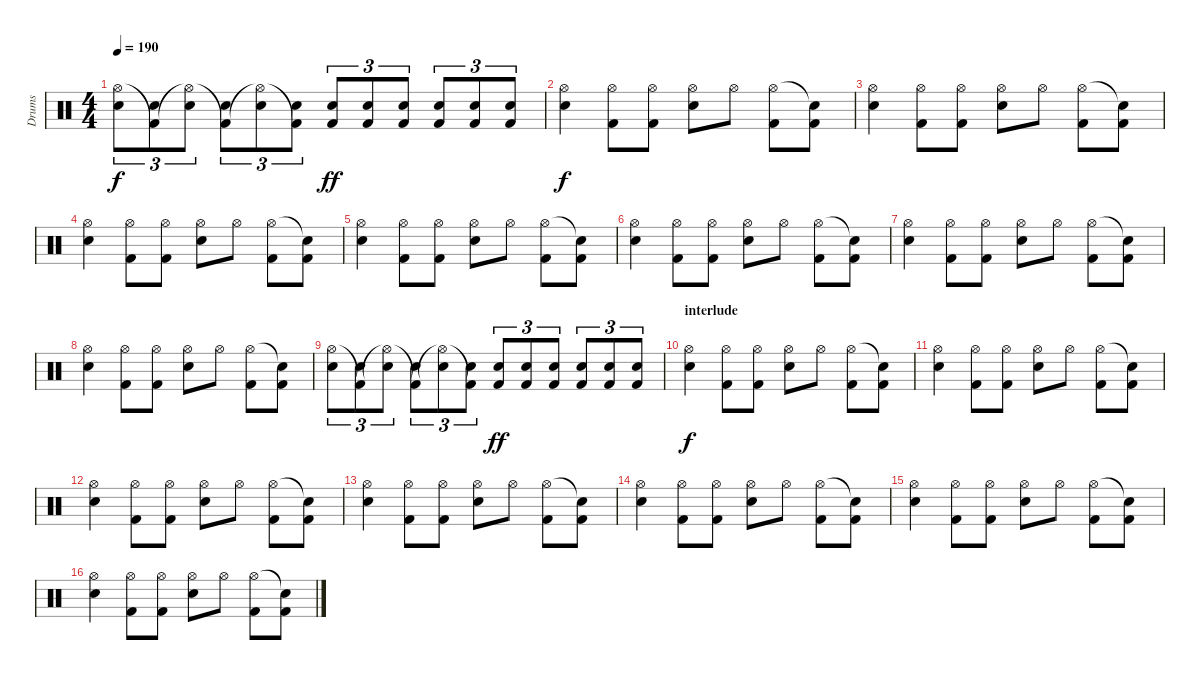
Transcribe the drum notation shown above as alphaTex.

\track ("Drums" "Drums") {instrument percussion}
\staff {score}
\articulation defaults
\ts (4 4)
\tempo 190
\clef neutral
\ks c
("Electric Snare (hit)" "Hi-Hat (open)").8{tu (3 2) dy f} ("Electric Snare (hit)" "Kick (hit) 2"{t}).8{tu (3 2)} ("Electric Snare (hit)" "Hi-Hat (open)"{t}).8{tu (3 2)} ("Electric Snare (hit)" "Kick (hit) 2"{t}).8{tu (3 2)} ("Electric Snare (hit)" "Hi-Hat (open)"{t}).8{tu (3 2)} ("Electric Snare (hit)" "Kick (hit) 2"{t}).8{tu (3 2)} ("Electric Snare (hit)" "Kick (hit) 2").8{tu (3 2) dy ff} ("Electric Snare (hit)" "Kick (hit) 2").8{tu (3 2)} ("Electric Snare (hit)" "Kick (hit) 2").8{tu (3 2)} ("Electric Snare (hit)" "Kick (hit) 2").8{tu (3 2)} ("Electric Snare (hit)" "Kick (hit) 2").8{tu (3 2)} ("Electric Snare (hit)" "Kick (hit) 2").8{tu (3 2)} |
("Electric Snare (hit)" "Hi-Hat (open)").4{dy f} ("Hi-Hat (open)" "Kick (hit) 2").8 ("Hi-Hat (open)" "Kick (hit) 2").8 ("Hi-Hat (open)" "Electric Snare (hit)").8 "Hi-Hat (open)".8 ("Kick (hit) 2" "Hi-Hat (open)").8 ("Kick (hit) 2" "Snare (hit)"{t}).8 |
("Electric Snare (hit)" "Hi-Hat (open)").4 ("Hi-Hat (open)" "Kick (hit) 2").8 ("Hi-Hat (open)" "Kick (hit) 2").8 ("Hi-Hat (open)" "Electric Snare (hit)").8 "Hi-Hat (open)".8 ("Kick (hit) 2" "Hi-Hat (open)").8 ("Kick (hit) 2" "Snare (hit)"{t}).8 |
("Electric Snare (hit)" "Hi-Hat (open)").4 ("Hi-Hat (open)" "Kick (hit) 2").8 ("Hi-Hat (open)" "Kick (hit) 2").8 ("Hi-Hat (open)" "Electric Snare (hit)").8 "Hi-Hat (open)".8 ("Kick (hit) 2" "Hi-Hat (open)").8 ("Kick (hit) 2" "Snare (hit)"{t}).8 |
("Electric Snare (hit)" "Hi-Hat (open)").4 ("Hi-Hat (open)" "Kick (hit) 2").8 ("Hi-Hat (open)" "Kick (hit) 2").8 ("Hi-Hat (open)" "Electric Snare (hit)").8 "Hi-Hat (open)".8 ("Kick (hit) 2" "Hi-Hat (open)").8 ("Kick (hit) 2" "Snare (hit)"{t}).8 |
("Electric Snare (hit)" "Hi-Hat (open)").4 ("Hi-Hat (open)" "Kick (hit) 2").8 ("Hi-Hat (open)" "Kick (hit) 2").8 ("Hi-Hat (open)" "Electric Snare (hit)").8 "Hi-Hat (open)".8 ("Kick (hit) 2" "Hi-Hat (open)").8 ("Kick (hit) 2" "Snare (hit)"{t}).8 |
("Electric Snare (hit)" "Hi-Hat (open)").4 ("Hi-Hat (open)" "Kick (hit) 2").8 ("Hi-Hat (open)" "Kick (hit) 2").8 ("Hi-Hat (open)" "Electric Snare (hit)").8 "Hi-Hat (open)".8 ("Kick (hit) 2" "Hi-Hat (open)").8 ("Kick (hit) 2" "Snare (hit)"{t}).8 |
("Electric Snare (hit)" "Hi-Hat (open)").4 ("Hi-Hat (open)" "Kick (hit) 2").8 ("Hi-Hat (open)" "Kick (hit) 2").8 ("Hi-Hat (open)" "Electric Snare (hit)").8 "Hi-Hat (open)".8 ("Kick (hit) 2" "Hi-Hat (open)").8 ("Kick (hit) 2" "Snare (hit)"{t}).8 |
("Electric Snare (hit)" "Hi-Hat (open)").8{tu (3 2)} ("Electric Snare (hit)" "Kick (hit) 2"{t}).8{tu (3 2)} ("Electric Snare (hit)" "Hi-Hat (open)"{t}).8{tu (3 2)} ("Electric Snare (hit)" "Kick (hit) 2"{t}).8{tu (3 2)} ("Electric Snare (hit)" "Hi-Hat (open)"{t}).8{tu (3 2)} ("Electric Snare (hit)" "Kick (hit) 2"{t}).8{tu (3 2)} ("Electric Snare (hit)" "Kick (hit) 2").8{tu (3 2) dy ff} ("Electric Snare (hit)" "Kick (hit) 2").8{tu (3 2)} ("Electric Snare (hit)" "Kick (hit) 2").8{tu (3 2)} ("Electric Snare (hit)" "Kick (hit) 2").8{tu (3 2)} ("Electric Snare (hit)" "Kick (hit) 2").8{tu (3 2)} ("Electric Snare (hit)" "Kick (hit) 2").8{tu (3 2)} |
\section ("" "interlude")
("Electric Snare (hit)" "Hi-Hat (open)").4{dy f} ("Hi-Hat (open)" "Kick (hit) 2").8 ("Hi-Hat (open)" "Kick (hit) 2").8 ("Hi-Hat (open)" "Electric Snare (hit)").8 "Hi-Hat (open)".8 ("Kick (hit) 2" "Hi-Hat (open)").8 ("Kick (hit) 2" "Snare (hit)"{t}).8 |
("Electric Snare (hit)" "Hi-Hat (open)").4 ("Hi-Hat (open)" "Kick (hit) 2").8 ("Hi-Hat (open)" "Kick (hit) 2").8 ("Hi-Hat (open)" "Electric Snare (hit)").8 "Hi-Hat (open)".8 ("Kick (hit) 2" "Hi-Hat (open)").8 ("Kick (hit) 2" "Snare (hit)"{t}).8 |
("Electric Snare (hit)" "Hi-Hat (open)").4 ("Hi-Hat (open)" "Kick (hit) 2").8 ("Hi-Hat (open)" "Kick (hit) 2").8 ("Hi-Hat (open)" "Electric Snare (hit)").8 "Hi-Hat (open)".8 ("Kick (hit) 2" "Hi-Hat (open)").8 ("Kick (hit) 2" "Snare (hit)"{t}).8 |
("Electric Snare (hit)" "Hi-Hat (open)").4 ("Hi-Hat (open)" "Kick (hit) 2").8 ("Hi-Hat (open)" "Kick (hit) 2").8 ("Hi-Hat (open)" "Electric Snare (hit)").8 "Hi-Hat (open)".8 ("Kick (hit) 2" "Hi-Hat (open)").8 ("Kick (hit) 2" "Snare (hit)"{t}).8 |
("Electric Snare (hit)" "Hi-Hat (open)").4 ("Hi-Hat (open)" "Kick (hit) 2").8 ("Hi-Hat (open)" "Kick (hit) 2").8 ("Hi-Hat (open)" "Electric Snare (hit)").8 "Hi-Hat (open)".8 ("Kick (hit) 2" "Hi-Hat (open)").8 ("Kick (hit) 2" "Snare (hit)"{t}).8 |
("Electric Snare (hit)" "Hi-Hat (open)").4 ("Hi-Hat (open)" "Kick (hit) 2").8 ("Hi-Hat (open)" "Kick (hit) 2").8 ("Hi-Hat (open)" "Electric Snare (hit)").8 "Hi-Hat (open)".8 ("Kick (hit) 2" "Hi-Hat (open)").8 ("Kick (hit) 2" "Snare (hit)"{t}).8 |
("Electric Snare (hit)" "Hi-Hat (open)").4 ("Hi-Hat (open)" "Kick (hit) 2").8 ("Hi-Hat (open)" "Kick (hit) 2").8 ("Hi-Hat (open)" "Electric Snare (hit)").8 "Hi-Hat (open)".8 ("Kick (hit) 2" "Hi-Hat (open)").8 ("Kick (hit) 2" "Snare (hit)"{t}).8
